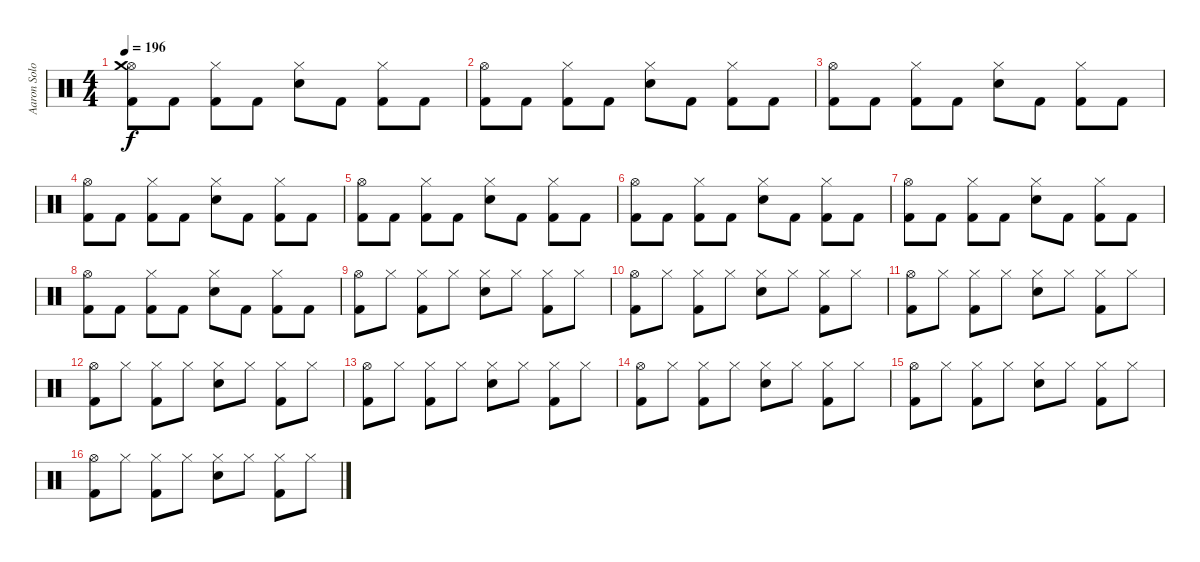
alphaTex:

\track ("Aaron Solowoniuk" "Aaron Solo") {instrument percussion}
\staff {score}
\articulation defaults
\ts (4 4)
\tempo 196
\clef neutral
\ks c
("Hi-Hat (open)" "Kick (hit) 2" "Crash medium (hit)").8{dy f} "Kick (hit) 2".8 ("Hi-Hat (closed)" "Kick (hit) 2").8 "Kick (hit) 2".8 ("Hi-Hat (closed)" "Electric Snare (hit)").8 "Kick (hit) 2".8 ("Hi-Hat (closed)" "Kick (hit) 2").8 "Kick (hit) 2".8 |
("Hi-Hat (open)" "Kick (hit) 2").8 "Kick (hit) 2".8 ("Hi-Hat (closed)" "Kick (hit) 2").8 "Kick (hit) 2".8 ("Hi-Hat (closed)" "Electric Snare (hit)").8 "Kick (hit) 2".8 ("Hi-Hat (closed)" "Kick (hit) 2").8 "Kick (hit) 2".8 |
("Hi-Hat (open)" "Kick (hit) 2").8 "Kick (hit) 2".8 ("Hi-Hat (closed)" "Kick (hit) 2").8 "Kick (hit) 2".8 ("Hi-Hat (closed)" "Electric Snare (hit)").8 "Kick (hit) 2".8 ("Hi-Hat (closed)" "Kick (hit) 2").8 "Kick (hit) 2".8 |
("Hi-Hat (open)" "Kick (hit) 2").8 "Kick (hit) 2".8 ("Hi-Hat (closed)" "Kick (hit) 2").8 "Kick (hit) 2".8 ("Hi-Hat (closed)" "Electric Snare (hit)").8 "Kick (hit) 2".8 ("Hi-Hat (closed)" "Kick (hit) 2").8 "Kick (hit) 2".8 |
("Hi-Hat (open)" "Kick (hit) 2").8 "Kick (hit) 2".8 ("Hi-Hat (closed)" "Kick (hit) 2").8 "Kick (hit) 2".8 ("Hi-Hat (closed)" "Electric Snare (hit)").8 "Kick (hit) 2".8 ("Hi-Hat (closed)" "Kick (hit) 2").8 "Kick (hit) 2".8 |
("Hi-Hat (open)" "Kick (hit) 2").8 "Kick (hit) 2".8 ("Hi-Hat (closed)" "Kick (hit) 2").8 "Kick (hit) 2".8 ("Hi-Hat (closed)" "Electric Snare (hit)").8 "Kick (hit) 2".8 ("Hi-Hat (closed)" "Kick (hit) 2").8 "Kick (hit) 2".8 |
("Hi-Hat (open)" "Kick (hit) 2").8 "Kick (hit) 2".8 ("Hi-Hat (closed)" "Kick (hit) 2").8 "Kick (hit) 2".8 ("Hi-Hat (closed)" "Electric Snare (hit)").8 "Kick (hit) 2".8 ("Hi-Hat (closed)" "Kick (hit) 2").8 "Kick (hit) 2".8 |
("Hi-Hat (open)" "Kick (hit) 2").8 "Kick (hit) 2".8 ("Hi-Hat (closed)" "Kick (hit) 2").8 "Kick (hit) 2".8 ("Hi-Hat (closed)" "Electric Snare (hit)").8 "Kick (hit) 2".8 ("Hi-Hat (closed)" "Kick (hit) 2").8 "Kick (hit) 2".8 |
("Hi-Hat (open)" "Kick (hit) 2").8 "Hi-Hat (closed)".8 ("Hi-Hat (closed)" "Kick (hit) 2").8 "Hi-Hat (closed)".8 ("Hi-Hat (closed)" "Electric Snare (hit)").8 "Hi-Hat (closed)".8 ("Hi-Hat (closed)" "Kick (hit) 2").8 "Hi-Hat (closed)".8 |
("Hi-Hat (open)" "Kick (hit) 2").8 "Hi-Hat (closed)".8 ("Hi-Hat (closed)" "Kick (hit) 2").8 "Hi-Hat (closed)".8 ("Hi-Hat (closed)" "Electric Snare (hit)").8 "Hi-Hat (closed)".8 ("Hi-Hat (closed)" "Kick (hit) 2").8 "Hi-Hat (closed)".8 |
("Hi-Hat (open)" "Kick (hit) 2").8 "Hi-Hat (closed)".8 ("Hi-Hat (closed)" "Kick (hit) 2").8 "Hi-Hat (closed)".8 ("Hi-Hat (closed)" "Electric Snare (hit)").8 "Hi-Hat (closed)".8 ("Hi-Hat (closed)" "Kick (hit) 2").8 "Hi-Hat (closed)".8 |
("Hi-Hat (open)" "Kick (hit) 2").8 "Hi-Hat (closed)".8 ("Hi-Hat (closed)" "Kick (hit) 2").8 "Hi-Hat (closed)".8 ("Hi-Hat (closed)" "Electric Snare (hit)").8 "Hi-Hat (closed)".8 ("Hi-Hat (closed)" "Kick (hit) 2").8 "Hi-Hat (closed)".8 |
("Hi-Hat (open)" "Kick (hit) 2").8 "Hi-Hat (closed)".8 ("Hi-Hat (closed)" "Kick (hit) 2").8 "Hi-Hat (closed)".8 ("Hi-Hat (closed)" "Electric Snare (hit)").8 "Hi-Hat (closed)".8 ("Hi-Hat (closed)" "Kick (hit) 2").8 "Hi-Hat (closed)".8 |
("Hi-Hat (open)" "Kick (hit) 2").8 "Hi-Hat (closed)".8 ("Hi-Hat (closed)" "Kick (hit) 2").8 "Hi-Hat (closed)".8 ("Hi-Hat (closed)" "Electric Snare (hit)").8 "Hi-Hat (closed)".8 ("Hi-Hat (closed)" "Kick (hit) 2").8 "Hi-Hat (closed)".8 |
("Hi-Hat (open)" "Kick (hit) 2").8 "Hi-Hat (closed)".8 ("Hi-Hat (closed)" "Kick (hit) 2").8 "Hi-Hat (closed)".8 ("Hi-Hat (closed)" "Electric Snare (hit)").8 "Hi-Hat (closed)".8 ("Hi-Hat (closed)" "Kick (hit) 2").8 "Hi-Hat (closed)".8 |
("Hi-Hat (open)" "Kick (hit) 2").8 "Hi-Hat (closed)".8 ("Hi-Hat (closed)" "Kick (hit) 2").8 "Hi-Hat (closed)".8 ("Hi-Hat (closed)" "Electric Snare (hit)").8 "Hi-Hat (closed)".8 ("Hi-Hat (closed)" "Kick (hit) 2").8 "Hi-Hat (closed)".8
